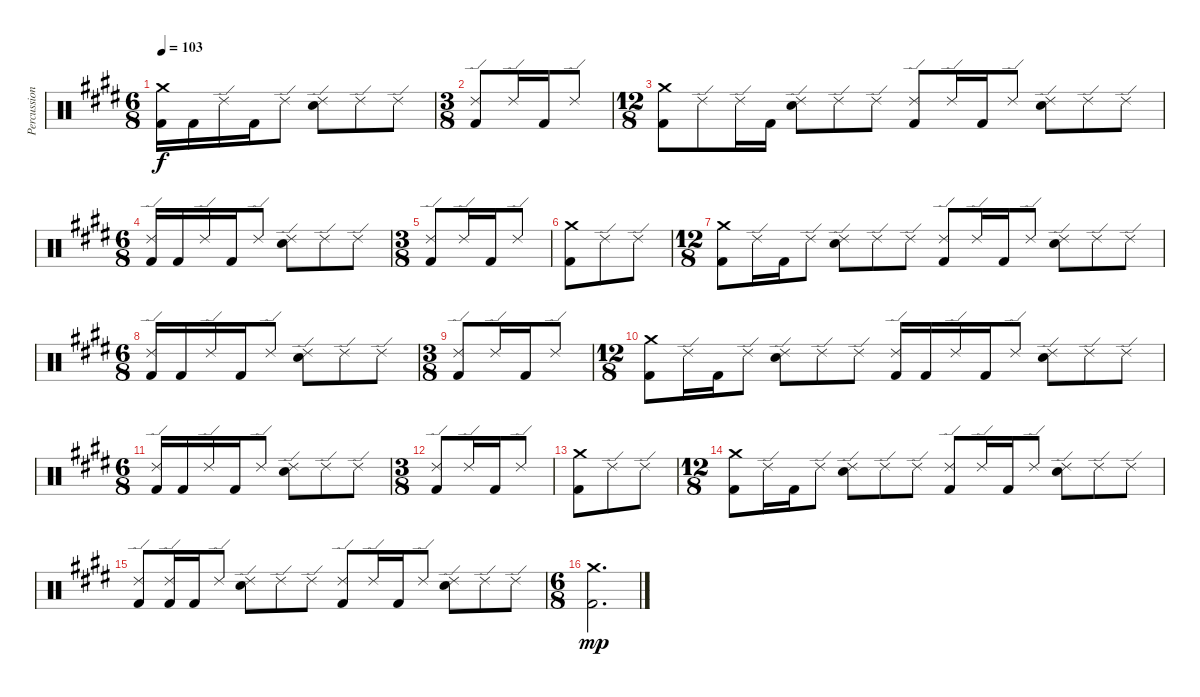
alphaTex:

\track ("Percussion" "Percussion") {instrument percussion}
\staff {score}
\articulation defaults
\ts (6 8)
\tempo 103
\clef neutral
\ks e
("Crash medium (hit)" "Kick (hit) 2").16{dy f} "Kick (hit) 2".16 "Ride (edge) 2".16 "Kick (hit) 2".16 "Ride (edge) 2".8 ("Ride (edge) 2" "Electric Snare (hit)").8 "Ride (edge) 2".8 "Ride (edge) 2".8 |
\ts (3 8)
\ks c#minor
("Ride (edge) 2" "Kick (hit) 2").8 "Ride (edge) 2".16 "Kick (hit) 2".16 "Ride (edge) 2".8 |
\ts (12 8)
("Crash medium (hit)" "Kick (hit) 2").8 "Ride (edge) 2".8{beam merge} "Ride (edge) 2".16 "Kick (hit) 2".16 ("Ride (edge) 2" "Electric Snare (hit)").8 "Ride (edge) 2".8 "Ride (edge) 2".8 ("Ride (edge) 2" "Kick (hit) 2").8 "Ride (edge) 2".16 "Kick (hit) 2".16 "Ride (edge) 2".8 ("Ride (edge) 2" "Electric Snare (hit)").8 "Ride (edge) 2".8 "Ride (edge) 2".8 |
\ts (6 8)
\ks e
("Ride (edge) 2" "Kick (hit) 2").16 "Kick (hit) 2".16 "Ride (edge) 2".16 "Kick (hit) 2".16 "Ride (edge) 2".8 ("Ride (edge) 2" "Electric Snare (hit)").8 "Ride (edge) 2".8 "Ride (edge) 2".8 |
\ts (3 8)
\ks c#minor
("Ride (edge) 2" "Kick (hit) 2").8{beam merge} "Ride (edge) 2".16 "Kick (hit) 2".16{beam merge} "Ride (edge) 2".8 |
("Crash medium (hit)" "Kick (hit) 2").8 "Ride (edge) 2".8{beam merge} "Ride (edge) 2".8 |
\ts (12 8)
("Crash medium (hit)" "Kick (hit) 2").8 "Ride (edge) 2".16 "Kick (hit) 2".16 "Ride (edge) 2".8 ("Ride (edge) 2" "Electric Snare (hit)").8 "Ride (edge) 2".8 "Ride (edge) 2".8 ("Ride (edge) 2" "Kick (hit) 2").8 "Ride (edge) 2".16 "Kick (hit) 2".16 "Ride (edge) 2".8 ("Ride (edge) 2" "Electric Snare (hit)").8 "Ride (edge) 2".8 "Ride (edge) 2".8 |
\ts (6 8)
\ks e
("Ride (edge) 2" "Kick (hit) 2").16 "Kick (hit) 2".16 "Ride (edge) 2".16 "Kick (hit) 2".16 "Ride (edge) 2".8 ("Ride (edge) 2" "Electric Snare (hit)").8 "Ride (edge) 2".8 "Ride (edge) 2".8 |
\ts (3 8)
\ks c#minor
("Ride (edge) 2" "Kick (hit) 2").8{beam merge} "Ride (edge) 2".16 "Kick (hit) 2".16{beam merge} "Ride (edge) 2".8 |
\ts (12 8)
("Crash medium (hit)" "Kick (hit) 2").8 "Ride (edge) 2".16 "Kick (hit) 2".16 "Ride (edge) 2".8 ("Ride (edge) 2" "Electric Snare (hit)").8 "Ride (edge) 2".8 "Ride (edge) 2".8 ("Ride (edge) 2" "Kick (hit) 2").16 "Kick (hit) 2".16 "Ride (edge) 2".16 "Kick (hit) 2".16 "Ride (edge) 2".8 ("Ride (edge) 2" "Electric Snare (hit)").8 "Ride (edge) 2".8 "Ride (edge) 2".8 |
\ts (6 8)
\ks e
("Ride (edge) 2" "Kick (hit) 2").16 "Kick (hit) 2".16 "Ride (edge) 2".16 "Kick (hit) 2".16 "Ride (edge) 2".8 ("Ride (edge) 2" "Electric Snare (hit)").8 "Ride (edge) 2".8 "Ride (edge) 2".8 |
\ts (3 8)
\ks c#minor
("Ride (edge) 2" "Kick (hit) 2").8{beam merge} "Ride (edge) 2".16 "Kick (hit) 2".16{beam merge} "Ride (edge) 2".8 |
("Crash medium (hit)" "Kick (hit) 2").8 "Ride (edge) 2".8{beam merge} "Ride (edge) 2".8 |
\ts (12 8)
("Crash medium (hit)" "Kick (hit) 2").8 "Ride (edge) 2".16 "Kick (hit) 2".16 "Ride (edge) 2".8 ("Ride (edge) 2" "Electric Snare (hit)").8 "Ride (edge) 2".8 "Ride (edge) 2".8 ("Ride (edge) 2" "Kick (hit) 2").8 "Ride (edge) 2".16 "Kick (hit) 2".16 "Ride (edge) 2".8 ("Ride (edge) 2" "Electric Snare (hit)").8 "Ride (edge) 2".8 "Ride (edge) 2".8 |
\ks e
("Ride (edge) 2" "Kick (hit) 2").8 ("Ride (edge) 2" "Kick (hit) 2").16 "Kick (hit) 2".16 "Ride (edge) 2".8 ("Ride (edge) 2" "Electric Snare (hit)").8 "Ride (edge) 2".8 "Ride (edge) 2".8 ("Ride (edge) 2" "Kick (hit) 2").8 "Ride (edge) 2".16 "Kick (hit) 2".16 "Ride (edge) 2".8 ("Ride (edge) 2" "Electric Snare (hit)").8 "Ride (edge) 2".8 "Ride (edge) 2".8 |
\ts (6 8)
("Crash medium (hit)" "Kick (hit) 2").2{d dy mp}
